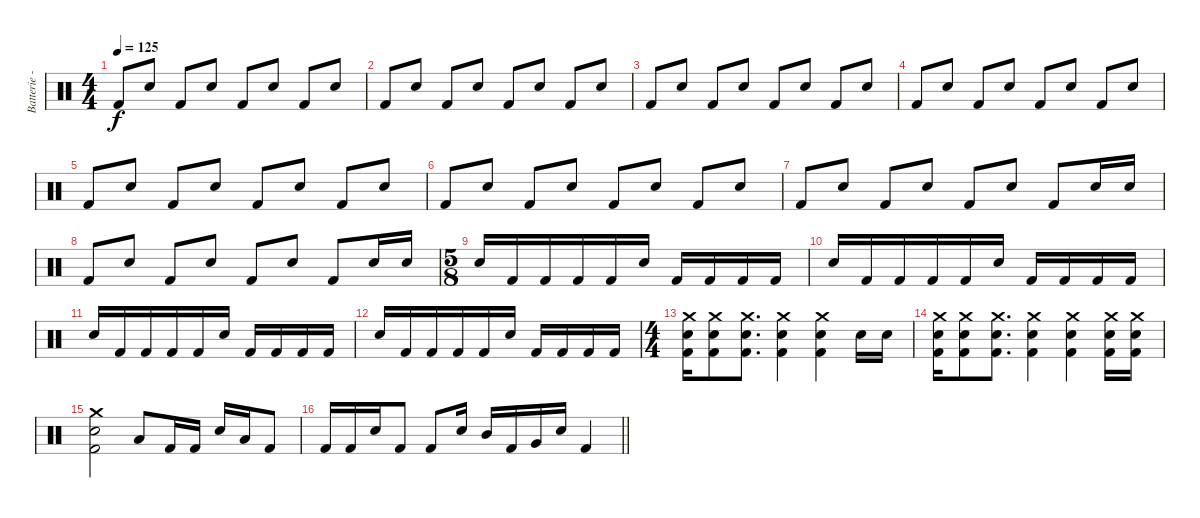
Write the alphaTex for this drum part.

\track ("Batterie - Shane Gaalaas" "Batterie -") {instrument percussion}
\staff {score}
\articulation defaults
\ts (4 4)
\tempo 125
\clef neutral
\ks c "Kick (hit) 2".8{dy f} "Electric Snare (hit)".8 "Kick (hit) 2".8 "Electric Snare (hit)".8 "Kick (hit) 2".8 "Electric Snare (hit)".8 "Kick (hit) 2".8 "Electric Snare (hit)".8
|
"Kick (hit) 2".8 "Electric Snare (hit)".8 "Kick (hit) 2".8 "Electric Snare (hit)".8 "Kick (hit) 2".8 "Electric Snare (hit)".8 "Kick (hit) 2".8 "Electric Snare (hit)".8 |
"Kick (hit) 2".8 "Electric Snare (hit)".8 "Kick (hit) 2".8 "Electric Snare (hit)".8 "Kick (hit) 2".8 "Electric Snare (hit)".8 "Kick (hit) 2".8 "Electric Snare (hit)".8 |
"Kick (hit) 2".8 "Electric Snare (hit)".8 "Kick (hit) 2".8 "Electric Snare (hit)".8 "Kick (hit) 2".8 "Electric Snare (hit)".8 "Kick (hit) 2".8 "Electric Snare (hit)".8 |
"Kick (hit) 2".8 "Electric Snare (hit)".8 "Kick (hit) 2".8 "Electric Snare (hit)".8 "Kick (hit) 2".8 "Electric Snare (hit)".8 "Kick (hit) 2".8 "Electric Snare (hit)".8 |
"Kick (hit) 2".8 "Electric Snare (hit)".8 "Kick (hit) 2".8 "Electric Snare (hit)".8 "Kick (hit) 2".8 "Electric Snare (hit)".8 "Kick (hit) 2".8 "Electric Snare (hit)".8 |
"Kick (hit) 2".8 "Electric Snare (hit)".8 "Kick (hit) 2".8 "Electric Snare (hit)".8 "Kick (hit) 2".8 "Electric Snare (hit)".8 "Kick (hit) 2".8 "Electric Snare (hit)".16 "Electric Snare (hit)".16 |
"Kick (hit) 2".8 "Electric Snare (hit)".8 "Kick (hit) 2".8 "Electric Snare (hit)".8 "Kick (hit) 2".8 "Electric Snare (hit)".8 "Kick (hit) 2".8 "Electric Snare (hit)".16 "Electric Snare (hit)".16 |
\ts (5 8)
"Electric Snare (hit)".16 "Kick (hit) 2".16 "Kick (hit) 2".16 "Kick (hit) 2".16 "Kick (hit) 2".16 "Electric Snare (hit)".16 "Kick (hit) 2".16 "Kick (hit) 2".16 "Kick (hit) 2".16 "Kick (hit) 2".16 |
"Electric Snare (hit)".16 "Kick (hit) 2".16 "Kick (hit) 2".16 "Kick (hit) 2".16 "Kick (hit) 2".16 "Electric Snare (hit)".16 "Kick (hit) 2".16 "Kick (hit) 2".16 "Kick (hit) 2".16 "Kick (hit) 2".16 |
"Electric Snare (hit)".16 "Kick (hit) 2".16 "Kick (hit) 2".16 "Kick (hit) 2".16 "Kick (hit) 2".16 "Electric Snare (hit)".16 "Kick (hit) 2".16 "Kick (hit) 2".16 "Kick (hit) 2".16 "Kick (hit) 2".16 |
"Electric Snare (hit)".16 "Kick (hit) 2".16 "Kick (hit) 2".16 "Kick (hit) 2".16 "Kick (hit) 2".16 "Electric Snare (hit)".16 "Kick (hit) 2".16 "Kick (hit) 2".16 "Kick (hit) 2".16 "Kick (hit) 2".16 |
\ts (4 4)
("Crash medium (hit)" "Electric Snare (hit)" "Kick (hit) 2").16 ("Crash medium (hit)" "Electric Snare (hit)" "Kick (hit) 2").8 ("Crash medium (hit)" "Electric Snare (hit)" "Kick (hit) 2").8{d} ("Crash medium (hit)" "Electric Snare (hit)" "Kick (hit) 2").4 ("Crash medium (hit)" "Electric Snare (hit)" "Kick (hit) 2").4 "Electric Snare (hit)".16 "Electric Snare (hit)".16 |
("Crash medium (hit)" "Electric Snare (hit)" "Kick (hit) 2").16 ("Crash medium (hit)" "Electric Snare (hit)" "Kick (hit) 2").8 ("Crash medium (hit)" "Electric Snare (hit)" "Kick (hit) 2").8{d} ("Crash medium (hit)" "Electric Snare (hit)" "Kick (hit) 2").4 ("Crash medium (hit)" "Electric Snare (hit)" "Kick (hit) 2").4 ("Crash medium (hit)" "Electric Snare (hit)" "Kick (hit) 2").16 ("Crash medium (hit)" "Electric Snare (hit)" "Kick (hit) 2").16 |
("Crash medium (hit)" "Electric Snare (hit)" "Kick (hit) 2").2 "Low Tom (hit)".8 "Kick (hit) 2".16 "Kick (hit) 2".16 "Electric Snare (hit)".16 "Low Tom (hit)".16 "Kick (hit) 2".8 |
\barLineRight lightlight "Kick (hit) 2".16 "Kick (hit) 2".16 "Electric Snare (hit)".16 "Kick (hit) 2".8 "Kick (hit) 2".8 "Electric Snare (hit)".16 "Mid Tom (hit)".16 "Kick (hit) 2".16 "Very Low Tom (hit)".16 "Electric Snare (hit)".16 "Kick (hit) 2".4
